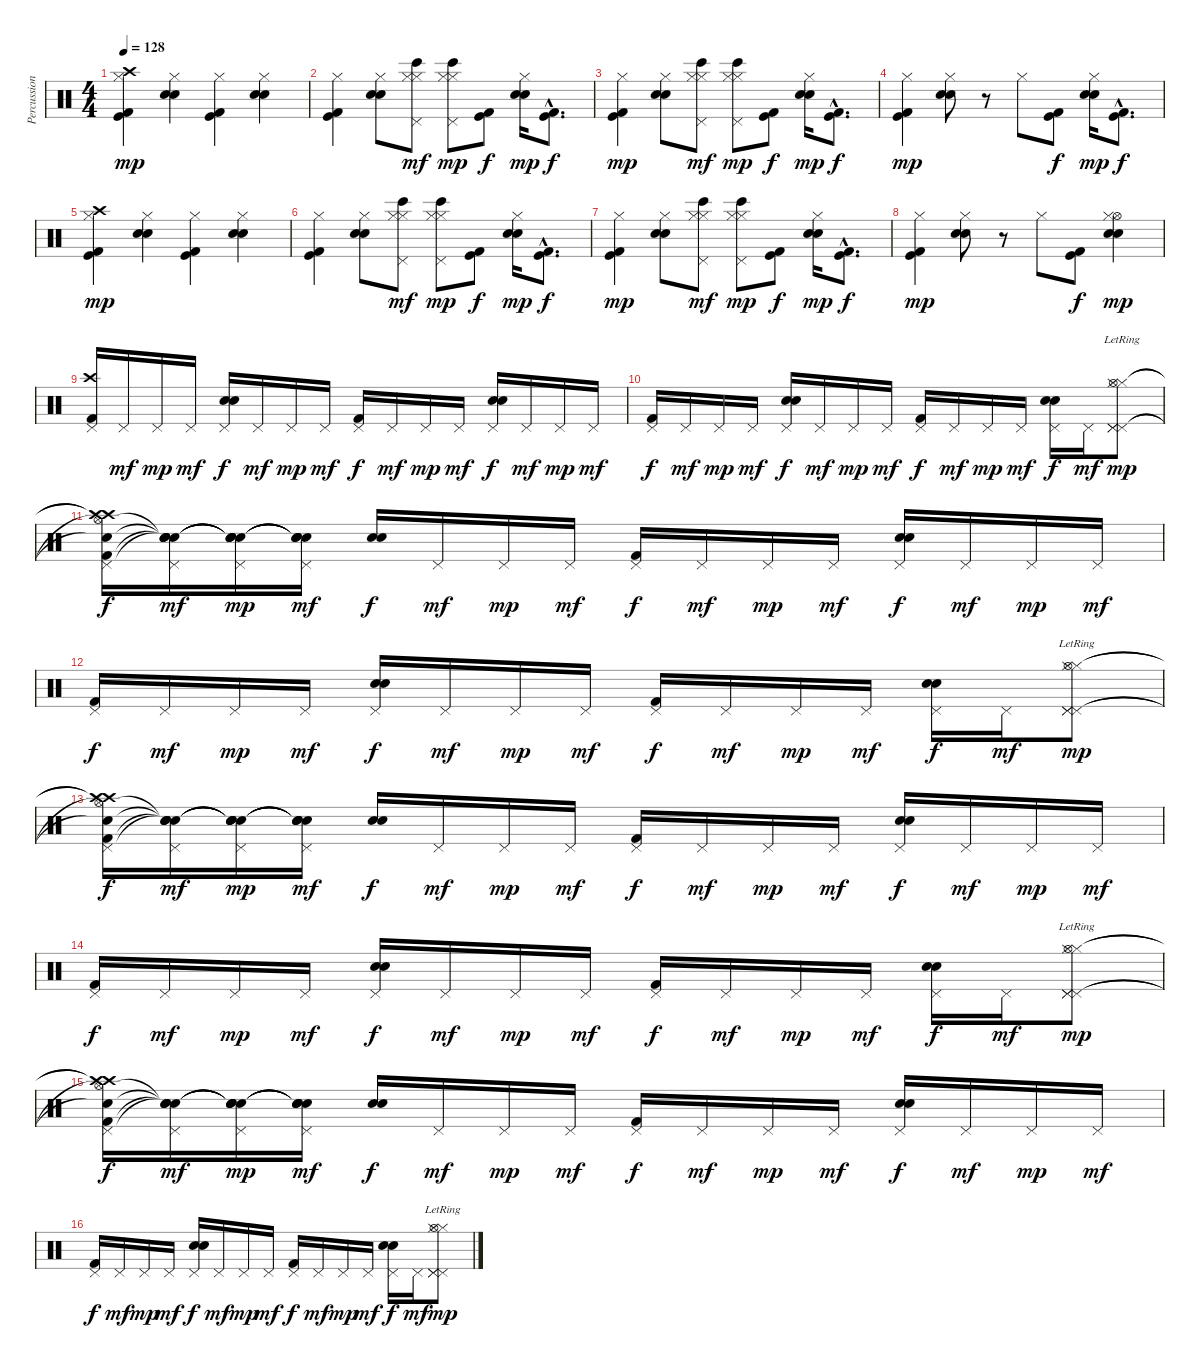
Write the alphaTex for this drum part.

\track ("Percussion" "Percussion") {instrument percussion}
\staff {score}
\articulation defaults
\ts (4 4)
\tempo 128
\clef neutral
\ks c
("Kick (hit) 2" "Kick (hit)" "Crash high (hit)" "Hi-Hat (closed)").4{dy mp} ("Electric Snare (hit)" "Snare (hit) 2" "Hi-Hat (closed)").4 ("Kick (hit) 2" "Kick (hit)" "Hi-Hat (closed)").4 ("Electric Snare (hit)" "Snare (hit) 2" "Hi-Hat (closed)").4 |
("Kick (hit) 2" "Kick (hit)" "Hi-Hat (closed)").4 ("Electric Snare (hit)" "Snare (hit) 2" "Hi-Hat (closed)").8 ("Pedal Hi-Hat (hit)" "Hi-Hat (closed)" "Bongo High (hit)" "Hi-Hat (closed)").8{dy mf} ("Pedal Hi-Hat (hit)" "Hi-Hat (closed)" "Bongo High (hit)" "Hi-Hat (closed)").8{dy mp} ("Kick (hit) 2" "Kick (hit)").8{dy f} ("Electric Snare (hit)" "Snare (hit) 2" "Hi-Hat (closed)").16{dy mp} ("Kick (hit) 2"{hac} "Kick (hit)"{hac}).8{d dy f} |
("Kick (hit) 2" "Kick (hit)" "Hi-Hat (closed)").4{dy mp} ("Electric Snare (hit)" "Snare (hit) 2" "Hi-Hat (closed)").8 ("Pedal Hi-Hat (hit)" "Hi-Hat (closed)" "Bongo High (hit)" "Hi-Hat (closed)").8{dy mf} ("Pedal Hi-Hat (hit)" "Hi-Hat (closed)" "Bongo High (hit)" "Hi-Hat (closed)").8{dy mp} ("Kick (hit) 2" "Kick (hit)").8{dy f} ("Electric Snare (hit)" "Snare (hit) 2" "Hi-Hat (closed)").16{dy mp} ("Kick (hit) 2"{hac} "Kick (hit)"{hac}).8{d dy f} |
("Kick (hit) 2" "Kick (hit)" "Hi-Hat (closed)").4{dy mp} ("Electric Snare (hit)" "Snare (hit) 2" "Hi-Hat (closed)").8 r.8 "Hi-Hat (closed)".8 ("Kick (hit) 2" "Kick (hit)").8{dy f} ("Electric Snare (hit)" "Snare (hit) 2" "Hi-Hat (closed)").16{dy mp} ("Kick (hit) 2"{hac} "Kick (hit)"{hac}).8{d dy f} |
("Kick (hit) 2" "Kick (hit)" "Crash high (hit)" "Hi-Hat (closed)").4{dy mp} ("Electric Snare (hit)" "Snare (hit) 2" "Hi-Hat (closed)").4 ("Kick (hit) 2" "Kick (hit)" "Hi-Hat (closed)").4 ("Electric Snare (hit)" "Snare (hit) 2" "Hi-Hat (closed)").4 |
("Kick (hit) 2" "Kick (hit)" "Hi-Hat (closed)").4 ("Electric Snare (hit)" "Snare (hit) 2" "Hi-Hat (closed)").8 ("Pedal Hi-Hat (hit)" "Hi-Hat (closed)" "Bongo High (hit)" "Hi-Hat (closed)").8{dy mf} ("Pedal Hi-Hat (hit)" "Hi-Hat (closed)" "Bongo High (hit)" "Hi-Hat (closed)").8{dy mp} ("Kick (hit) 2" "Kick (hit)").8{dy f} ("Electric Snare (hit)" "Snare (hit) 2" "Hi-Hat (closed)").16{dy mp} ("Kick (hit) 2"{hac} "Kick (hit)"{hac}).8{d dy f} |
("Kick (hit) 2" "Kick (hit)" "Hi-Hat (closed)").4{dy mp} ("Electric Snare (hit)" "Snare (hit) 2" "Hi-Hat (closed)").8 ("Pedal Hi-Hat (hit)" "Hi-Hat (closed)" "Bongo High (hit)" "Hi-Hat (closed)").8{dy mf} ("Pedal Hi-Hat (hit)" "Hi-Hat (closed)" "Bongo High (hit)" "Hi-Hat (closed)").8{dy mp} ("Kick (hit) 2" "Kick (hit)").8{dy f} ("Electric Snare (hit)" "Snare (hit) 2" "Hi-Hat (closed)").16{dy mp} ("Kick (hit) 2"{hac} "Kick (hit)"{hac}).8{d dy f} |
("Kick (hit) 2" "Kick (hit)" "Hi-Hat (closed)").4{dy mp} ("Electric Snare (hit)" "Snare (hit) 2" "Hi-Hat (closed)").8 r.8 "Hi-Hat (closed)".8 ("Kick (hit) 2" "Kick (hit)").8{dy f} ("Electric Snare (hit)" "Snare (hit) 2" "Hi-Hat (open)" "Hi-Hat (closed)").4{dy mp} |
("Kick (hit) 2" "Pedal Hi-Hat (hit)" "Crash high (hit)").16 "Pedal Hi-Hat (hit)".16{dy mf} "Pedal Hi-Hat (hit)".16{dy mp} "Pedal Hi-Hat (hit)".16{dy mf} ("Electric Snare (hit)" "Snare (hit) 2" "Pedal Hi-Hat (hit)").16{dy f} "Pedal Hi-Hat (hit)".16{dy mf} "Pedal Hi-Hat (hit)".16{dy mp} "Pedal Hi-Hat (hit)".16{dy mf} ("Kick (hit) 2" "Pedal Hi-Hat (hit)").16{dy f} "Pedal Hi-Hat (hit)".16{dy mf} "Pedal Hi-Hat (hit)".16{dy mp} "Pedal Hi-Hat (hit)".16{dy mf} ("Electric Snare (hit)" "Snare (hit) 2" "Pedal Hi-Hat (hit)").16{dy f} "Pedal Hi-Hat (hit)".16{dy mf} "Pedal Hi-Hat (hit)".16{dy mp} "Pedal Hi-Hat (hit)".16{dy mf} |
("Kick (hit) 2" "Pedal Hi-Hat (hit)").16{dy f} "Pedal Hi-Hat (hit)".16{dy mf} "Pedal Hi-Hat (hit)".16{dy mp} "Pedal Hi-Hat (hit)".16{dy mf} ("Electric Snare (hit)" "Snare (hit) 2" "Pedal Hi-Hat (hit)").16{dy f} "Pedal Hi-Hat (hit)".16{dy mf} "Pedal Hi-Hat (hit)".16{dy mp} "Pedal Hi-Hat (hit)".16{dy mf} ("Kick (hit) 2" "Pedal Hi-Hat (hit)").16{dy f} "Pedal Hi-Hat (hit)".16{dy mf} "Pedal Hi-Hat (hit)".16{dy mp} "Pedal Hi-Hat (hit)".16{dy mf} ("Electric Snare (hit)" "Snare (hit) 2" "Pedal Hi-Hat (hit)").16{dy f} "Pedal Hi-Hat (hit)".16{dy mf} ("Pedal Hi-Hat (hit)"{lr} "Pedal Hi-Hat (hit)"{lr} "Pedal Hi-Hat (hit)"{lr} "Hi-Hat (closed)"{lr} "Hi-Hat (closed)"{lr} "Hi-Hat (open)"{lr}).8{dy mp} |
("Kick (hit) 2" "Snare (hit)"{t} "Hi-Hat (open)"{t} "Crash high (hit)"{t} "Pedal Hi-Hat (hit)" "Crash high (hit)"{t}).16{dy f} ("Snare (hit)"{t} "Snare (hit)"{t} "Snare (hit)"{t} "Pedal Hi-Hat (hit)" "Snare (hit)"{t}).16{dy mf} ("Snare (hit)"{t} "Snare (hit)"{t} "Snare (hit)"{t} "Pedal Hi-Hat (hit)" "Snare (hit)"{t}).16{dy mp} ("Snare (hit)"{t} "Snare (hit)"{t} "Snare (hit)"{t} "Pedal Hi-Hat (hit)" "Snare (hit)"{t}).16{dy mf} ("Electric Snare (hit)" "Snare (hit) 2").16{dy f} "Pedal Hi-Hat (hit)".16{dy mf} "Pedal Hi-Hat (hit)".16{dy mp} "Pedal Hi-Hat (hit)".16{dy mf} ("Kick (hit) 2" "Pedal Hi-Hat (hit)").16{dy f} "Pedal Hi-Hat (hit)".16{dy mf} "Pedal Hi-Hat (hit)".16{dy mp} "Pedal Hi-Hat (hit)".16{dy mf} ("Electric Snare (hit)" "Snare (hit) 2" "Pedal Hi-Hat (hit)").16{dy f} "Pedal Hi-Hat (hit)".16{dy mf} "Pedal Hi-Hat (hit)".16{dy mp} "Pedal Hi-Hat (hit)".16{dy mf} |
("Kick (hit) 2" "Pedal Hi-Hat (hit)").16{dy f} "Pedal Hi-Hat (hit)".16{dy mf} "Pedal Hi-Hat (hit)".16{dy mp} "Pedal Hi-Hat (hit)".16{dy mf} ("Electric Snare (hit)" "Snare (hit) 2" "Pedal Hi-Hat (hit)").16{dy f} "Pedal Hi-Hat (hit)".16{dy mf} "Pedal Hi-Hat (hit)".16{dy mp} "Pedal Hi-Hat (hit)".16{dy mf} ("Kick (hit) 2" "Pedal Hi-Hat (hit)").16{dy f} "Pedal Hi-Hat (hit)".16{dy mf} "Pedal Hi-Hat (hit)".16{dy mp} "Pedal Hi-Hat (hit)".16{dy mf} ("Electric Snare (hit)" "Snare (hit) 2" "Pedal Hi-Hat (hit)").16{dy f} "Pedal Hi-Hat (hit)".16{dy mf} ("Pedal Hi-Hat (hit)"{lr} "Pedal Hi-Hat (hit)"{lr} "Pedal Hi-Hat (hit)"{lr} "Hi-Hat (closed)"{lr} "Hi-Hat (closed)"{lr} "Hi-Hat (open)"{lr}).8{dy mp} |
("Kick (hit) 2" "Snare (hit)"{t} "Hi-Hat (open)"{t} "Crash high (hit)"{t} "Pedal Hi-Hat (hit)" "Crash high (hit)"{t}).16{dy f} ("Snare (hit)"{t} "Snare (hit)"{t} "Snare (hit)"{t} "Pedal Hi-Hat (hit)" "Snare (hit)"{t}).16{dy mf} ("Snare (hit)"{t} "Snare (hit)"{t} "Snare (hit)"{t} "Pedal Hi-Hat (hit)" "Snare (hit)"{t}).16{dy mp} ("Snare (hit)"{t} "Snare (hit)"{t} "Snare (hit)"{t} "Pedal Hi-Hat (hit)" "Snare (hit)"{t}).16{dy mf} ("Electric Snare (hit)" "Snare (hit) 2").16{dy f} "Pedal Hi-Hat (hit)".16{dy mf} "Pedal Hi-Hat (hit)".16{dy mp} "Pedal Hi-Hat (hit)".16{dy mf} ("Kick (hit) 2" "Pedal Hi-Hat (hit)").16{dy f} "Pedal Hi-Hat (hit)".16{dy mf} "Pedal Hi-Hat (hit)".16{dy mp} "Pedal Hi-Hat (hit)".16{dy mf} ("Electric Snare (hit)" "Snare (hit) 2" "Pedal Hi-Hat (hit)").16{dy f} "Pedal Hi-Hat (hit)".16{dy mf} "Pedal Hi-Hat (hit)".16{dy mp} "Pedal Hi-Hat (hit)".16{dy mf} |
("Kick (hit) 2" "Pedal Hi-Hat (hit)").16{dy f} "Pedal Hi-Hat (hit)".16{dy mf} "Pedal Hi-Hat (hit)".16{dy mp} "Pedal Hi-Hat (hit)".16{dy mf} ("Electric Snare (hit)" "Snare (hit) 2" "Pedal Hi-Hat (hit)").16{dy f} "Pedal Hi-Hat (hit)".16{dy mf} "Pedal Hi-Hat (hit)".16{dy mp} "Pedal Hi-Hat (hit)".16{dy mf} ("Kick (hit) 2" "Pedal Hi-Hat (hit)").16{dy f} "Pedal Hi-Hat (hit)".16{dy mf} "Pedal Hi-Hat (hit)".16{dy mp} "Pedal Hi-Hat (hit)".16{dy mf} ("Electric Snare (hit)" "Snare (hit) 2" "Pedal Hi-Hat (hit)").16{dy f} "Pedal Hi-Hat (hit)".16{dy mf} ("Pedal Hi-Hat (hit)"{lr} "Pedal Hi-Hat (hit)"{lr} "Pedal Hi-Hat (hit)"{lr} "Hi-Hat (closed)"{lr} "Hi-Hat (closed)"{lr} "Hi-Hat (open)"{lr}).8{dy mp} |
("Kick (hit) 2" "Snare (hit)"{t} "Hi-Hat (open)"{t} "Crash high (hit)"{t} "Pedal Hi-Hat (hit)" "Crash high (hit)"{t}).16{dy f} ("Snare (hit)"{t} "Snare (hit)"{t} "Snare (hit)"{t} "Pedal Hi-Hat (hit)" "Snare (hit)"{t}).16{dy mf} ("Snare (hit)"{t} "Snare (hit)"{t} "Snare (hit)"{t} "Pedal Hi-Hat (hit)" "Snare (hit)"{t}).16{dy mp} ("Snare (hit)"{t} "Snare (hit)"{t} "Snare (hit)"{t} "Pedal Hi-Hat (hit)" "Snare (hit)"{t}).16{dy mf} ("Electric Snare (hit)" "Snare (hit) 2").16{dy f} "Pedal Hi-Hat (hit)".16{dy mf} "Pedal Hi-Hat (hit)".16{dy mp} "Pedal Hi-Hat (hit)".16{dy mf} ("Kick (hit) 2" "Pedal Hi-Hat (hit)").16{dy f} "Pedal Hi-Hat (hit)".16{dy mf} "Pedal Hi-Hat (hit)".16{dy mp} "Pedal Hi-Hat (hit)".16{dy mf} ("Electric Snare (hit)" "Snare (hit) 2" "Pedal Hi-Hat (hit)").16{dy f} "Pedal Hi-Hat (hit)".16{dy mf} "Pedal Hi-Hat (hit)".16{dy mp} "Pedal Hi-Hat (hit)".16{dy mf} |
("Kick (hit) 2" "Pedal Hi-Hat (hit)").16{dy f} "Pedal Hi-Hat (hit)".16{dy mf} "Pedal Hi-Hat (hit)".16{dy mp} "Pedal Hi-Hat (hit)".16{dy mf} ("Electric Snare (hit)" "Snare (hit) 2" "Pedal Hi-Hat (hit)").16{dy f} "Pedal Hi-Hat (hit)".16{dy mf} "Pedal Hi-Hat (hit)".16{dy mp} "Pedal Hi-Hat (hit)".16{dy mf} ("Kick (hit) 2" "Pedal Hi-Hat (hit)").16{dy f} "Pedal Hi-Hat (hit)".16{dy mf} "Pedal Hi-Hat (hit)".16{dy mp} "Pedal Hi-Hat (hit)".16{dy mf} ("Electric Snare (hit)" "Snare (hit) 2" "Pedal Hi-Hat (hit)").16{dy f} "Pedal Hi-Hat (hit)".16{dy mf} ("Pedal Hi-Hat (hit)"{lr} "Pedal Hi-Hat (hit)"{lr} "Pedal Hi-Hat (hit)"{lr} "Hi-Hat (closed)"{lr} "Hi-Hat (closed)"{lr} "Hi-Hat (open)"{lr}).8{dy mp}
